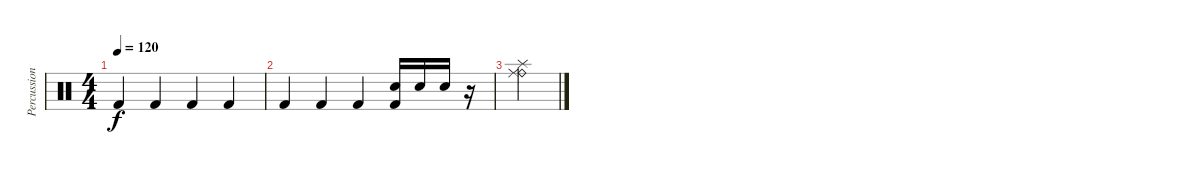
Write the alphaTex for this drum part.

\track ("Percussion" "Percussion") {instrument percussion}
\staff {score}
\articulation defaults
\ts (4 4)
\tempo 120
\clef neutral
\ks c "Kick (hit) 2".4{dy f} "Kick (hit) 2".4 "Kick (hit) 2".4 "Kick (hit) 2".4
|
"Kick (hit) 2".4 "Kick (hit) 2".4 "Kick (hit) 2".4 ("Electric Snare (hit)" "Kick (hit) 2").16 "Electric Snare (hit)".16 "Electric Snare (hit)".16 r.16 |
("Splash (hit)" "Ride (bell)" "Ride (middle)").4
